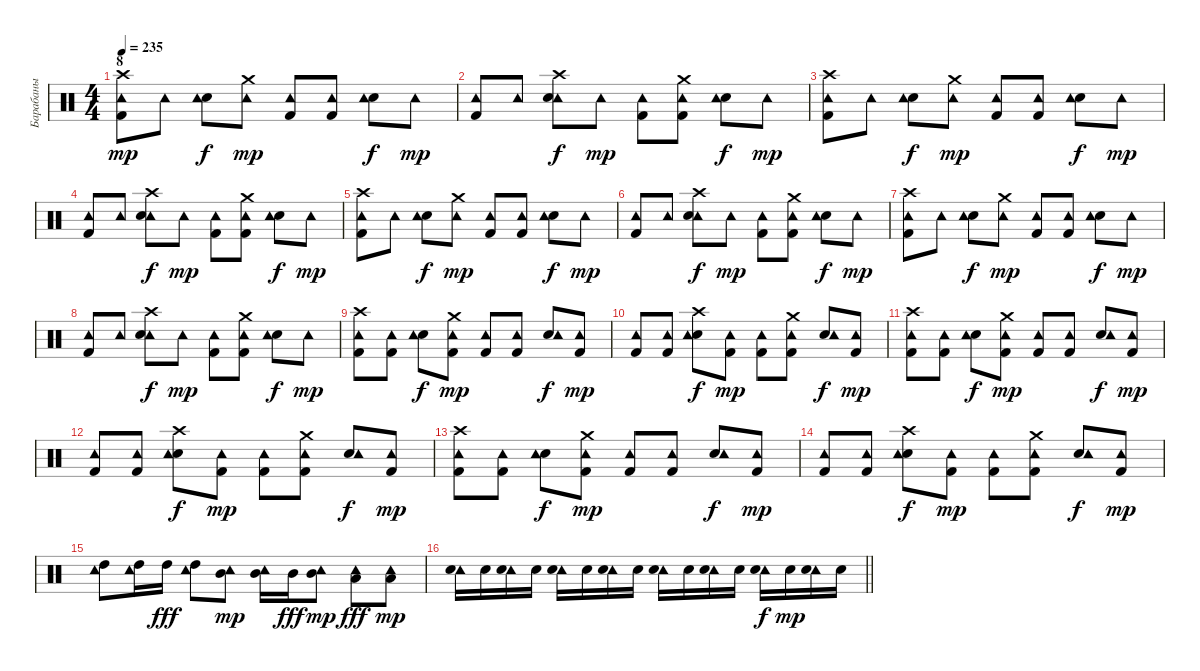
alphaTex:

\track ("Барабаны" "Барабаны") {instrument percussion}
\staff {score}
\articulation defaults
\ts (4 4)
\section ("" "8")
\tempo 235
\clef neutral
\ks c
("Crash high (hit)" "Kick (hit) 2" "Tambourine (hit)").8{dy mp} "Tambourine (hit)".8 ("Electric Snare (hit)" "Tambourine (hit)").8{dy f} ("Crash medium (hit)" "Tambourine (hit)").8{dy mp} ("Kick (hit) 2" "Tambourine (hit)").8 ("Kick (hit) 2" "Tambourine (hit)").8 ("Electric Snare (hit)" "Tambourine (hit)").8{dy f} "Tambourine (hit)".8{dy mp} |
("Kick (hit) 2" "Tambourine (hit)").8 "Tambourine (hit)".8 ("Tambourine (hit)" "Electric Snare (hit)" "Crash high (hit)").8{dy f} "Tambourine (hit)".8{dy mp} ("Kick (hit) 2" "Tambourine (hit)").8 ("Tambourine (hit)" "Kick (hit) 2" "Crash medium (hit)").8 ("Electric Snare (hit)" "Tambourine (hit)").8{dy f} "Tambourine (hit)".8{dy mp} |
("Crash high (hit)" "Kick (hit) 2" "Tambourine (hit)").8 "Tambourine (hit)".8 ("Electric Snare (hit)" "Tambourine (hit)").8{dy f} ("Crash medium (hit)" "Tambourine (hit)").8{dy mp} ("Kick (hit) 2" "Tambourine (hit)").8 ("Kick (hit) 2" "Tambourine (hit)").8 ("Electric Snare (hit)" "Tambourine (hit)").8{dy f} "Tambourine (hit)".8{dy mp} |
("Kick (hit) 2" "Tambourine (hit)").8 "Tambourine (hit)".8 ("Tambourine (hit)" "Electric Snare (hit)" "Crash high (hit)").8{dy f} "Tambourine (hit)".8{dy mp} ("Kick (hit) 2" "Tambourine (hit)").8 ("Tambourine (hit)" "Kick (hit) 2" "Crash medium (hit)").8 ("Electric Snare (hit)" "Tambourine (hit)").8{dy f} "Tambourine (hit)".8{dy mp} |
("Crash high (hit)" "Kick (hit) 2" "Tambourine (hit)").8 "Tambourine (hit)".8 ("Electric Snare (hit)" "Tambourine (hit)").8{dy f} ("Crash medium (hit)" "Tambourine (hit)").8{dy mp} ("Kick (hit) 2" "Tambourine (hit)").8 ("Kick (hit) 2" "Tambourine (hit)").8 ("Electric Snare (hit)" "Tambourine (hit)").8{dy f} "Tambourine (hit)".8{dy mp} |
("Kick (hit) 2" "Tambourine (hit)").8 "Tambourine (hit)".8 ("Tambourine (hit)" "Electric Snare (hit)" "Crash high (hit)").8{dy f} "Tambourine (hit)".8{dy mp} ("Kick (hit) 2" "Tambourine (hit)").8 ("Tambourine (hit)" "Kick (hit) 2" "Crash medium (hit)").8 ("Electric Snare (hit)" "Tambourine (hit)").8{dy f} "Tambourine (hit)".8{dy mp} |
("Crash high (hit)" "Kick (hit) 2" "Tambourine (hit)").8 "Tambourine (hit)".8 ("Electric Snare (hit)" "Tambourine (hit)").8{dy f} ("Crash medium (hit)" "Tambourine (hit)").8{dy mp} ("Kick (hit) 2" "Tambourine (hit)").8 ("Kick (hit) 2" "Tambourine (hit)").8 ("Electric Snare (hit)" "Tambourine (hit)").8{dy f} "Tambourine (hit)".8{dy mp} |
("Kick (hit) 2" "Tambourine (hit)").8 "Tambourine (hit)".8 ("Tambourine (hit)" "Electric Snare (hit)" "Crash high (hit)").8{dy f} "Tambourine (hit)".8{dy mp} ("Kick (hit) 2" "Tambourine (hit)").8 ("Tambourine (hit)" "Kick (hit) 2" "Crash medium (hit)").8 ("Electric Snare (hit)" "Tambourine (hit)").8{dy f} "Tambourine (hit)".8{dy mp} |
("Kick (hit) 2" "Crash high (hit)" "Tambourine (hit)").8 ("Kick (hit) 2" "Tambourine (hit)").8 ("Electric Snare (hit)" "Tambourine (hit)").8{dy f} ("Kick (hit) 2" "Crash medium (hit)" "Tambourine (hit)").8{dy mp} ("Kick (hit) 2" "Tambourine (hit)").8 ("Kick (hit) 2" "Tambourine (hit)").8 ("Electric Snare (hit)" "Tambourine (hit)").8{dy f} ("Kick (hit) 2" "Tambourine (hit)").8{dy mp} |
("Kick (hit) 2" "Tambourine (hit)").8 ("Kick (hit) 2" "Tambourine (hit)").8 ("Electric Snare (hit)" "Tambourine (hit)" "Crash high (hit)").8{dy f} ("Kick (hit) 2" "Tambourine (hit)").8{dy mp} ("Kick (hit) 2" "Tambourine (hit)").8 ("Tambourine (hit)" "Kick (hit) 2" "Crash medium (hit)").8 ("Electric Snare (hit)" "Tambourine (hit)").8{dy f} ("Kick (hit) 2" "Tambourine (hit)").8{dy mp} |
("Kick (hit) 2" "Crash high (hit)" "Tambourine (hit)").8 ("Kick (hit) 2" "Tambourine (hit)").8 ("Electric Snare (hit)" "Tambourine (hit)").8{dy f} ("Kick (hit) 2" "Crash medium (hit)" "Tambourine (hit)").8{dy mp} ("Kick (hit) 2" "Tambourine (hit)").8 ("Kick (hit) 2" "Tambourine (hit)").8 ("Electric Snare (hit)" "Tambourine (hit)").8{dy f} ("Kick (hit) 2" "Tambourine (hit)").8{dy mp} |
("Kick (hit) 2" "Tambourine (hit)").8 ("Kick (hit) 2" "Tambourine (hit)").8 ("Electric Snare (hit)" "Tambourine (hit)" "Crash high (hit)").8{dy f} ("Kick (hit) 2" "Tambourine (hit)").8{dy mp} ("Kick (hit) 2" "Tambourine (hit)").8 ("Tambourine (hit)" "Kick (hit) 2" "Crash medium (hit)").8 ("Electric Snare (hit)" "Tambourine (hit)").8{dy f} ("Kick (hit) 2" "Tambourine (hit)").8{dy mp} |
("Kick (hit) 2" "Crash high (hit)" "Tambourine (hit)").8 ("Kick (hit) 2" "Tambourine (hit)").8 ("Electric Snare (hit)" "Tambourine (hit)").8{dy f} ("Kick (hit) 2" "Crash medium (hit)" "Tambourine (hit)").8{dy mp} ("Kick (hit) 2" "Tambourine (hit)").8 ("Kick (hit) 2" "Tambourine (hit)").8 ("Electric Snare (hit)" "Tambourine (hit)").8{dy f} ("Kick (hit) 2" "Tambourine (hit)").8{dy mp} |
("Kick (hit) 2" "Tambourine (hit)").8 ("Kick (hit) 2" "Tambourine (hit)").8 ("Electric Snare (hit)" "Tambourine (hit)" "Crash high (hit)").8{dy f} ("Kick (hit) 2" "Tambourine (hit)").8{dy mp} ("Kick (hit) 2" "Tambourine (hit)").8 ("Tambourine (hit)" "Kick (hit) 2" "Crash medium (hit)").8 ("Electric Snare (hit)" "Tambourine (hit)").8{dy f} ("Kick (hit) 2" "Tambourine (hit)").8{dy mp} |
("High Tom (hit)" "Tambourine (hit)").8 ("High Tom (hit)" "Tambourine (hit)").16 "High Tom (hit)".16{dy fff} ("High Tom (hit)" "Tambourine (hit)").8 ("Mid Tom (hit)" "Tambourine (hit)").8{dy mp} ("Mid Tom (hit)" "Tambourine (hit)").16 "Mid Tom (hit)".16{dy fff} ("Mid Tom (hit)" "Tambourine (hit)").8{dy mp} ("Low Tom (hit)" "Tambourine (hit)").8{dy fff} ("Low Tom (hit)" "Tambourine (hit)").8{dy mp} |
\barLineRight lightlight
("Tambourine (hit)" "Electric Snare (hit)").16 "Electric Snare (hit)".16 ("Tambourine (hit)" "Electric Snare (hit)").16 "Electric Snare (hit)".16 ("Tambourine (hit)" "Electric Snare (hit)").16 "Electric Snare (hit)".16 ("Tambourine (hit)" "Electric Snare (hit)").16 "Electric Snare (hit)".16 ("Tambourine (hit)" "Electric Snare (hit)").16 "Electric Snare (hit)".16 ("Tambourine (hit)" "Electric Snare (hit)").16 "Electric Snare (hit)".16 ("Tambourine (hit)" "Electric Snare (hit)").16{dy f} "Electric Snare (hit)".16{dy mp} ("Tambourine (hit)" "Electric Snare (hit)").16 "Electric Snare (hit)".16
